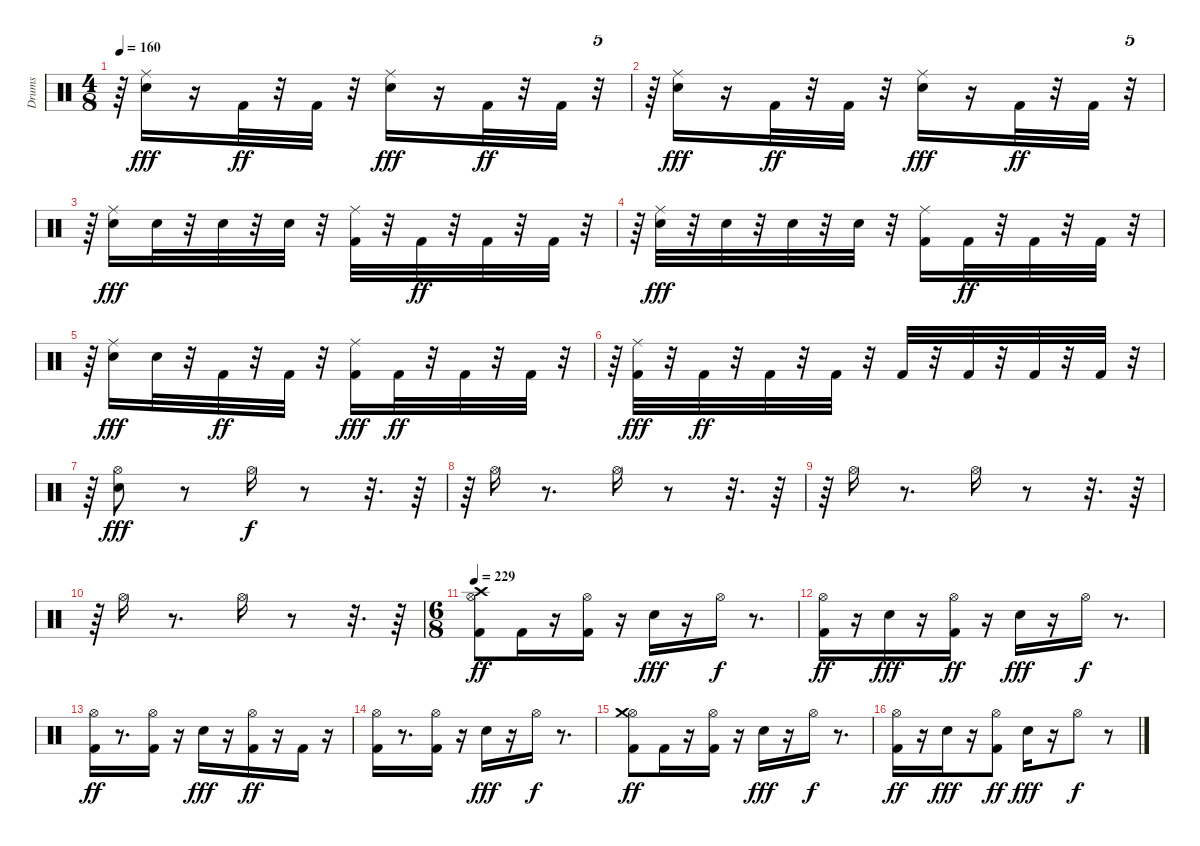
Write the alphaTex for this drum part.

\track ("Drums" "Drums") {instrument percussion}
\staff {score}
\articulation defaults
\ts (4 8)
\tempo 160
\clef neutral
\ks c
r.64{dy ff} ("Snare (hit) 2" "Ride (middle)").16{dy fff} r.16 "Kick (hit) 2".32{dy ff} r.32 "Kick (hit) 2".32 r.32 ("Snare (hit) 2" "Ride (middle)").16{dy fff} r.16 "Kick (hit) 2".32{dy ff} r.32 "Kick (hit) 2".32 r.32{tu (5 4)} |
r.64 ("Snare (hit) 2" "Ride (middle)").16{dy fff} r.16 "Kick (hit) 2".32{dy ff} r.32 "Kick (hit) 2".32 r.32 ("Snare (hit) 2" "Ride (middle)").16{dy fff} r.16 "Kick (hit) 2".32{dy ff} r.32 "Kick (hit) 2".32 r.32{tu (5 4)} |
r.64 ("Snare (hit) 2" "Ride (middle)").16{dy fff} "Snare (hit) 2".32 r.32 "Snare (hit) 2".32 r.32 "Snare (hit) 2".32 r.32 ("Kick (hit) 2" "Ride (middle)").32 r.32 "Kick (hit) 2".32{dy ff} r.32 "Kick (hit) 2".32 r.32 "Kick (hit) 2".32 r.32{tu (5 4)} |
r.64 ("Snare (hit) 2" "Ride (middle)").32{dy fff} r.32 "Snare (hit) 2".32 r.32 "Snare (hit) 2".32 r.32 "Snare (hit) 2".32 r.32 ("Kick (hit) 2" "Ride (middle)").16 "Kick (hit) 2".32{dy ff} r.32 "Kick (hit) 2".32 r.32 "Kick (hit) 2".32 r.32{tu (5 4)} |
r.64 ("Snare (hit) 2" "Ride (middle)").16{dy fff} "Snare (hit) 2".32 r.32 "Kick (hit) 2".32{dy ff} r.32 "Kick (hit) 2".32 r.32 ("Kick (hit) 2" "Ride (middle)").16{dy fff} "Kick (hit) 2".32{dy ff} r.32 "Kick (hit) 2".32 r.32 "Kick (hit) 2".32 r.32{tu (5 4)} |
r.64 ("Kick (hit) 2" "Ride (middle)").32{dy fff} r.32 "Kick (hit) 2".32{dy ff} r.32 "Kick (hit) 2".32 r.32 "Kick (hit) 2".32 r.32 "Kick (hit) 2".32 r.32 "Kick (hit) 2".32 r.32 "Kick (hit) 2".32 r.32 "Kick (hit) 2".32 r.32{tu (5 4)} |
r.64 ("Snare (hit) 2" "Hi-Hat (open)").8{dy fff} r.8 "Hi-Hat (open)".16{dy f} r.8 r.32{d} r.64 |
r.64 "Hi-Hat (open)".16 r.8{d} "Hi-Hat (open)".16 r.8 r.32{d} r.64 |
r.64 "Hi-Hat (open)".16 r.8{d} "Hi-Hat (open)".16 r.8 r.32{d} r.64 |
r.64 "Hi-Hat (open)".16 r.8{d} "Hi-Hat (open)".16 r.8 r.32{d} r.64 |
\ts (6 8)
\tempo 229
("Kick (hit) 2" "Hi-Hat (open)" "Crash high (hit)").8{dy ff} "Kick (hit) 2".16 r.16 ("Kick (hit) 2" "Hi-Hat (open)").16 r.16 "Snare (hit) 2".16{dy fff} r.16 "Hi-Hat (open)".16{dy f} r.8{d} |
("Kick (hit) 2" "Hi-Hat (open)").16{dy ff} r.16 "Snare (hit) 2".16{dy fff} r.16 ("Kick (hit) 2" "Hi-Hat (open)").16{dy ff} r.16 "Snare (hit) 2".16{dy fff} r.16 "Hi-Hat (open)".16{dy f} r.8{d} |
("Kick (hit) 2" "Hi-Hat (open)").16{dy ff} r.8{d} ("Kick (hit) 2" "Hi-Hat (open)").16 r.16 "Snare (hit) 2".16{dy fff} r.16 ("Kick (hit) 2" "Hi-Hat (open)").16{dy ff} r.16 "Kick (hit) 2".16 r.16 |
("Kick (hit) 2" "Hi-Hat (open)").16 r.8{d} ("Kick (hit) 2" "Hi-Hat (open)").16 r.16 "Snare (hit) 2".16{dy fff} r.16 "Hi-Hat (open)".16{dy f} r.8{d} |
("Kick (hit) 2" "Hi-Hat (open)" "Crash medium (hit)").8{dy ff} "Kick (hit) 2".16 r.16 ("Kick (hit) 2" "Hi-Hat (open)").16 r.16 "Snare (hit) 2".16{dy fff} r.16 "Hi-Hat (open)".16{dy f} r.8{d} |
("Kick (hit) 2" "Hi-Hat (open)").16{dy ff} r.16 "Snare (hit) 2".16{dy fff} r.16 ("Kick (hit) 2" "Hi-Hat (open)").8{dy ff} "Snare (hit) 2".16{dy fff} r.16 "Hi-Hat (open)".8{dy f} r.8
